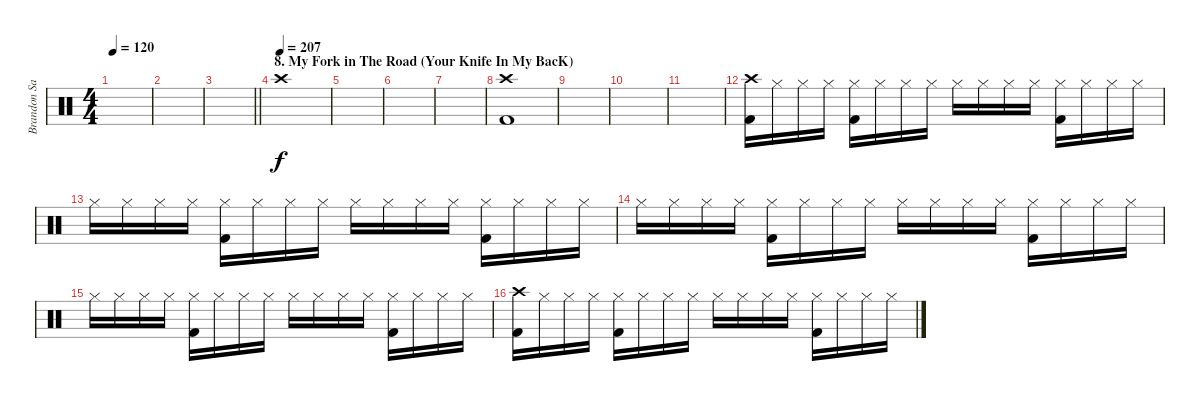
\track ("Brandon Saller" "Brandon Sa") {instrument percussion}
\staff {score}
\articulation defaults
\ts (4 4)
\tempo 120
\clef neutral
\ks c
|
|
\barLineRight lightlight
|
\section ("" "8. My Fork in The Road (Your Knife In My BacK)")
\tempo (207)
"Crash high (hit)".1 |
|
|
|
("Crash high (hit)" "Kick (hit) 2").1 |
|
|
|
("Crash high (hit)" "Kick (hit) 2").16 "Hi-Hat (closed)".16 "Hi-Hat (closed)".16 "Hi-Hat (closed)".16 ("Hi-Hat (closed)" "Kick (hit) 2").16 "Hi-Hat (closed)".16 "Hi-Hat (closed)".16 "Hi-Hat (closed)".16 "Hi-Hat (closed)".16 "Hi-Hat (closed)".16 "Hi-Hat (closed)".16 "Hi-Hat (closed)".16 ("Hi-Hat (closed)" "Kick (hit) 2").16 "Hi-Hat (closed)".16 "Hi-Hat (closed)".16 "Hi-Hat (closed)".16 |
"Hi-Hat (closed)".16 "Hi-Hat (closed)".16 "Hi-Hat (closed)".16 "Hi-Hat (closed)".16 ("Hi-Hat (closed)" "Kick (hit) 2").16 "Hi-Hat (closed)".16 "Hi-Hat (closed)".16 "Hi-Hat (closed)".16 "Hi-Hat (closed)".16 "Hi-Hat (closed)".16 "Hi-Hat (closed)".16 "Hi-Hat (closed)".16 ("Hi-Hat (closed)" "Kick (hit) 2").16 "Hi-Hat (closed)".16 "Hi-Hat (closed)".16 "Hi-Hat (closed)".16 |
"Hi-Hat (closed)".16 "Hi-Hat (closed)".16 "Hi-Hat (closed)".16 "Hi-Hat (closed)".16 ("Hi-Hat (closed)" "Kick (hit) 2").16 "Hi-Hat (closed)".16 "Hi-Hat (closed)".16 "Hi-Hat (closed)".16 "Hi-Hat (closed)".16 "Hi-Hat (closed)".16 "Hi-Hat (closed)".16 "Hi-Hat (closed)".16 ("Hi-Hat (closed)" "Kick (hit) 2").16 "Hi-Hat (closed)".16 "Hi-Hat (closed)".16 "Hi-Hat (closed)".16 |
"Hi-Hat (closed)".16 "Hi-Hat (closed)".16 "Hi-Hat (closed)".16 "Hi-Hat (closed)".16 ("Hi-Hat (closed)" "Kick (hit) 2").16 "Hi-Hat (closed)".16 "Hi-Hat (closed)".16 "Hi-Hat (closed)".16 "Hi-Hat (closed)".16 "Hi-Hat (closed)".16 "Hi-Hat (closed)".16 "Hi-Hat (closed)".16 ("Hi-Hat (closed)" "Kick (hit) 2").16 "Hi-Hat (closed)".16 "Hi-Hat (closed)".16 "Hi-Hat (closed)".16 |
("Crash high (hit)" "Kick (hit) 2").16 "Hi-Hat (closed)".16 "Hi-Hat (closed)".16 "Hi-Hat (closed)".16 ("Hi-Hat (closed)" "Kick (hit) 2").16 "Hi-Hat (closed)".16 "Hi-Hat (closed)".16 "Hi-Hat (closed)".16 "Hi-Hat (closed)".16 "Hi-Hat (closed)".16 "Hi-Hat (closed)".16 "Hi-Hat (closed)".16 ("Hi-Hat (closed)" "Kick (hit) 2").16 "Hi-Hat (closed)".16 "Hi-Hat (closed)".16 "Hi-Hat (closed)".16
